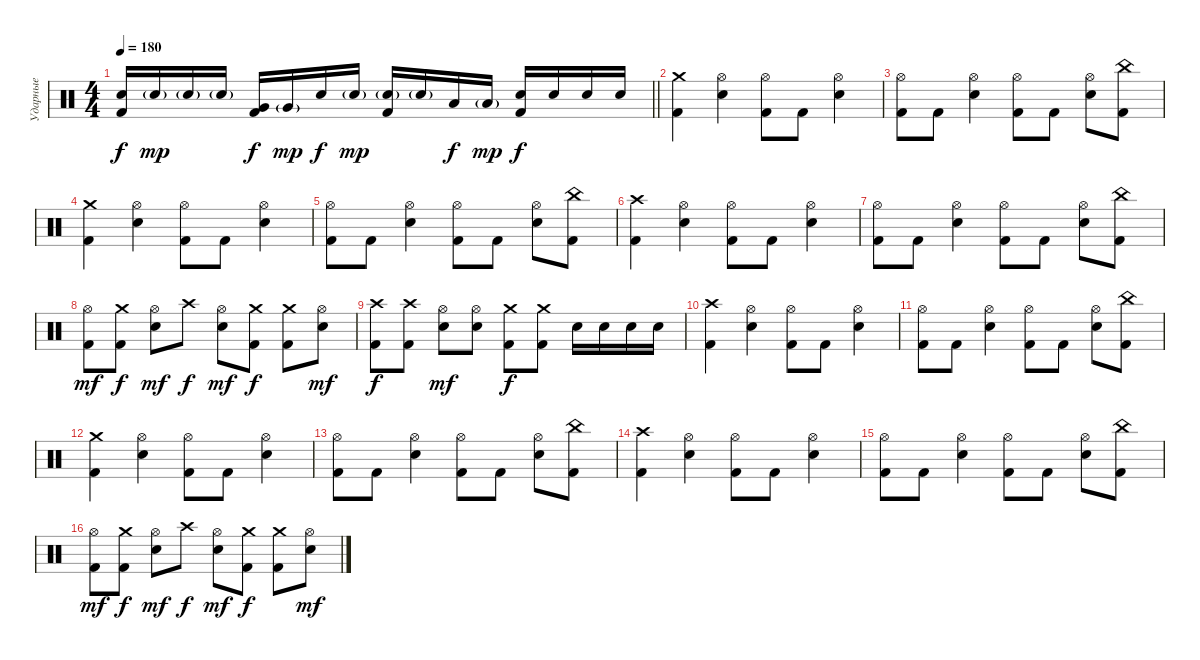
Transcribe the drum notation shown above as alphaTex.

\track ("Ударные" "Ударные") {instrument percussion}
\staff {score}
\articulation defaults
\ts (4 4)
\tempo 180
\clef neutral
\barLineRight lightlight
\ks c
("Electric Snare (hit)" "Kick (hit) 2").16{dy f} "Electric Snare (hit)"{g}.16{dy mp} "Electric Snare (hit)"{g}.16 "Electric Snare (hit)"{g}.16 ("Very Low Tom (hit)" "Kick (hit) 2").16{dy f} "Very Low Tom (hit)"{g}.16{dy mp} "Electric Snare (hit)".16{dy f} "Electric Snare (hit)"{g}.16{dy mp} ("Electric Snare (hit)"{g} "Kick (hit) 2").16 "Electric Snare (hit)"{g}.16 "Low Floor Tom (hit)".16{dy f} "Low Floor Tom (hit)"{g}.16{dy mp} ("Electric Snare (hit)" "Kick (hit) 2").16{dy f} "Electric Snare (hit)".16 "Electric Snare (hit)".16 "Electric Snare (hit)".16 |
("Crash medium (hit)" "Kick (hit) 2").4 ("Electric Snare (hit)" "Hi-Hat (open)").4 ("Kick (hit) 2" "Hi-Hat (open)").8 "Kick (hit) 2".8 ("Electric Snare (hit)" "Hi-Hat (open)").4 |
("Kick (hit) 2" "Hi-Hat (open)").8 "Kick (hit) 2".8 ("Electric Snare (hit)" "Hi-Hat (open)").4 ("Kick (hit) 2" "Hi-Hat (open)").8 "Kick (hit) 2".8 ("Electric Snare (hit)" "Hi-Hat (open)").8 ("Kick (hit) 2" "China (hit)").8 |
("Crash medium (hit)" "Kick (hit) 2").4 ("Electric Snare (hit)" "Hi-Hat (open)").4 ("Kick (hit) 2" "Hi-Hat (open)").8 "Kick (hit) 2".8 ("Electric Snare (hit)" "Hi-Hat (open)").4 |
("Kick (hit) 2" "Hi-Hat (open)").8 "Kick (hit) 2".8 ("Electric Snare (hit)" "Hi-Hat (open)").4 ("Kick (hit) 2" "Hi-Hat (open)").8 "Kick (hit) 2".8 ("Electric Snare (hit)" "Hi-Hat (open)").8 ("Kick (hit) 2" "China (hit)").8 |
("Crash high (hit)" "Kick (hit) 2").4 ("Electric Snare (hit)" "Hi-Hat (open)").4 ("Kick (hit) 2" "Hi-Hat (open)").8 "Kick (hit) 2".8 ("Electric Snare (hit)" "Hi-Hat (open)").4 |
("Kick (hit) 2" "Hi-Hat (open)").8 "Kick (hit) 2".8 ("Electric Snare (hit)" "Hi-Hat (open)").4 ("Kick (hit) 2" "Hi-Hat (open)").8 "Kick (hit) 2".8 ("Electric Snare (hit)" "Hi-Hat (open)").8 ("Kick (hit) 2" "China (hit)").8 |
("Hi-Hat (open)" "Kick (hit) 2").8{dy mf} ("Crash medium (hit)" "Kick (hit) 2").8{dy f} ("Hi-Hat (open)" "Electric Snare (hit)").8{dy mf} "Crash high (hit)".8{dy f} ("Hi-Hat (open)" "Electric Snare (hit)").8{dy mf} ("Crash medium (hit)" "Kick (hit) 2").8{dy f} ("Crash medium (hit)" "Kick (hit) 2").8 ("Hi-Hat (open)" "Electric Snare (hit)").8{dy mf} |
("Crash high (hit)" "Kick (hit) 2").8{dy f} ("Crash high (hit)" "Kick (hit) 2").8 ("Hi-Hat (open)" "Electric Snare (hit)").8{dy mf} ("Hi-Hat (open)" "Electric Snare (hit)").8 ("Crash medium (hit)" "Kick (hit) 2").8{dy f} ("Crash medium (hit)" "Kick (hit) 2").8 "Electric Snare (hit)".16 "Electric Snare (hit)".16 "Electric Snare (hit)".16 "Electric Snare (hit)".16 |
("Crash high (hit)" "Kick (hit) 2").4 ("Electric Snare (hit)" "Hi-Hat (open)").4 ("Kick (hit) 2" "Hi-Hat (open)").8 "Kick (hit) 2".8 ("Electric Snare (hit)" "Hi-Hat (open)").4 |
("Kick (hit) 2" "Hi-Hat (open)").8 "Kick (hit) 2".8 ("Electric Snare (hit)" "Hi-Hat (open)").4 ("Kick (hit) 2" "Hi-Hat (open)").8 "Kick (hit) 2".8 ("Electric Snare (hit)" "Hi-Hat (open)").8 ("Kick (hit) 2" "China (hit)").8 |
("Crash medium (hit)" "Kick (hit) 2").4 ("Electric Snare (hit)" "Hi-Hat (open)").4 ("Kick (hit) 2" "Hi-Hat (open)").8 "Kick (hit) 2".8 ("Electric Snare (hit)" "Hi-Hat (open)").4 |
("Kick (hit) 2" "Hi-Hat (open)").8 "Kick (hit) 2".8 ("Electric Snare (hit)" "Hi-Hat (open)").4 ("Kick (hit) 2" "Hi-Hat (open)").8 "Kick (hit) 2".8 ("Electric Snare (hit)" "Hi-Hat (open)").8 ("Kick (hit) 2" "China (hit)").8 |
("Crash high (hit)" "Kick (hit) 2").4 ("Electric Snare (hit)" "Hi-Hat (open)").4 ("Kick (hit) 2" "Hi-Hat (open)").8 "Kick (hit) 2".8 ("Electric Snare (hit)" "Hi-Hat (open)").4 |
("Kick (hit) 2" "Hi-Hat (open)").8 "Kick (hit) 2".8 ("Electric Snare (hit)" "Hi-Hat (open)").4 ("Kick (hit) 2" "Hi-Hat (open)").8 "Kick (hit) 2".8 ("Electric Snare (hit)" "Hi-Hat (open)").8 ("Kick (hit) 2" "China (hit)").8 |
("Hi-Hat (open)" "Kick (hit) 2").8{dy mf} ("Crash medium (hit)" "Kick (hit) 2").8{dy f} ("Hi-Hat (open)" "Electric Snare (hit)").8{dy mf} "Crash high (hit)".8{dy f} ("Hi-Hat (open)" "Electric Snare (hit)").8{dy mf} ("Crash medium (hit)" "Kick (hit) 2").8{dy f} ("Crash medium (hit)" "Kick (hit) 2").8 ("Hi-Hat (open)" "Electric Snare (hit)").8{dy mf}
